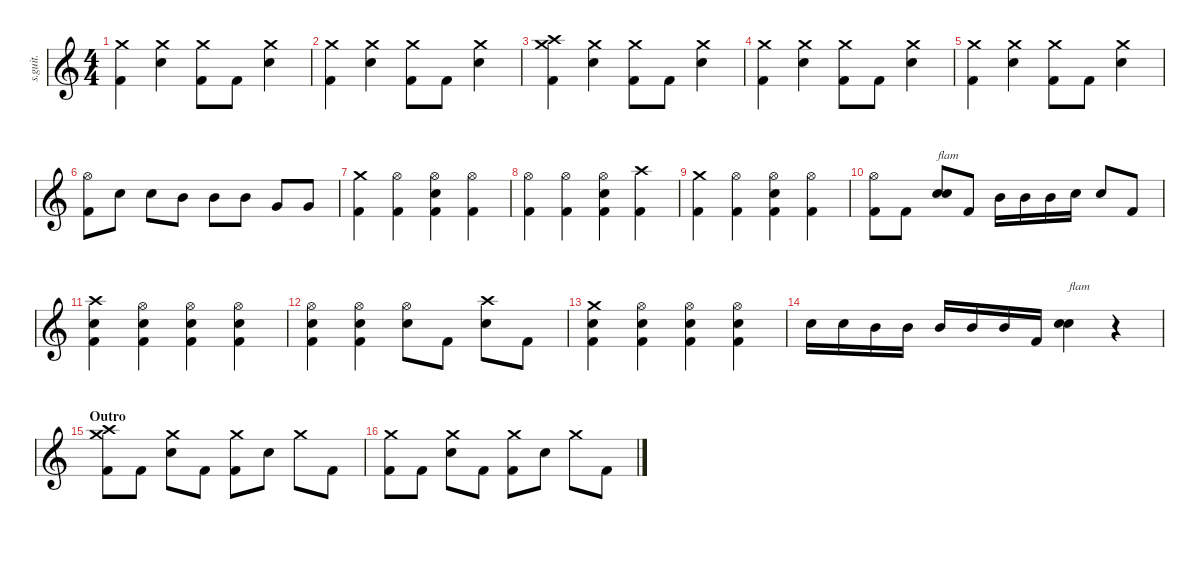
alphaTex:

\defaultSystemsLayout 4
\hideDynamics
\bracketExtendMode nobrackets
\track ("Zac Farro | Drums" "s.guit.") {instrument percussion}
\staff {score}
\articulation defaults
\ts (4 4)
\tempo (173 hide)
\clef g2
\ks c
("Crash medium (hit)" "Kick (hit) 2").4{lyrics (0 "") lyrics (1 "") lyrics (2 "") lyrics (3 "") lyrics (4 "") dy f} ("Crash medium (hit)" "Electric Snare (hit)").4{lyrics (0 "") lyrics (1 "") lyrics (2 "") lyrics (3 "") lyrics (4 "")} ("Crash medium (hit)" "Kick (hit) 2").8{lyrics (0 "") lyrics (1 "") lyrics (2 "") lyrics (3 "") lyrics (4 "")} "Kick (hit) 2".8{lyrics (0 "") lyrics (1 "") lyrics (2 "") lyrics (3 "") lyrics (4 "")} ("Crash medium (hit)" "Electric Snare (hit)").4{lyrics (0 "") lyrics (1 "") lyrics (2 "") lyrics (3 "") lyrics (4 "")} |
("Crash medium (hit)" "Kick (hit) 2").4{lyrics (0 "") lyrics (1 "") lyrics (2 "") lyrics (3 "") lyrics (4 "")} ("Crash medium (hit)" "Electric Snare (hit)").4{lyrics (0 "") lyrics (1 "") lyrics (2 "") lyrics (3 "") lyrics (4 "")} ("Crash medium (hit)" "Kick (hit) 2").8{lyrics (0 "") lyrics (1 "") lyrics (2 "") lyrics (3 "") lyrics (4 "")} "Kick (hit) 2".8{lyrics (0 "") lyrics (1 "") lyrics (2 "") lyrics (3 "") lyrics (4 "")} ("Crash medium (hit)" "Electric Snare (hit)").4{lyrics (0 "") lyrics (1 "") lyrics (2 "") lyrics (3 "") lyrics (4 "")} |
("Crash high (hit)" "Crash medium (hit)" "Kick (hit) 2").4{lyrics (0 "") lyrics (1 "") lyrics (2 "") lyrics (3 "") lyrics (4 "")} ("Crash medium (hit)" "Electric Snare (hit)").4{lyrics (0 "") lyrics (1 "") lyrics (2 "") lyrics (3 "") lyrics (4 "")} ("Crash medium (hit)" "Kick (hit) 2").8{lyrics (0 "") lyrics (1 "") lyrics (2 "") lyrics (3 "") lyrics (4 "")} "Kick (hit) 2".8{lyrics (0 "") lyrics (1 "") lyrics (2 "") lyrics (3 "") lyrics (4 "")} ("Crash medium (hit)" "Electric Snare (hit)").4{lyrics (0 "") lyrics (1 "") lyrics (2 "") lyrics (3 "") lyrics (4 "")} |
("Crash medium (hit)" "Kick (hit) 2").4{lyrics (0 "") lyrics (1 "") lyrics (2 "") lyrics (3 "") lyrics (4 "")} ("Crash medium (hit)" "Electric Snare (hit)").4{lyrics (0 "") lyrics (1 "") lyrics (2 "") lyrics (3 "") lyrics (4 "")} ("Crash medium (hit)" "Kick (hit) 2").8{lyrics (0 "") lyrics (1 "") lyrics (2 "") lyrics (3 "") lyrics (4 "")} "Kick (hit) 2".8{lyrics (0 "") lyrics (1 "") lyrics (2 "") lyrics (3 "") lyrics (4 "")} ("Crash medium (hit)" "Electric Snare (hit)").4{lyrics (0 "") lyrics (1 "") lyrics (2 "") lyrics (3 "") lyrics (4 "")} |
("Crash medium (hit)" "Kick (hit) 2").4{lyrics (0 "") lyrics (1 "") lyrics (2 "") lyrics (3 "") lyrics (4 "")} ("Crash medium (hit)" "Electric Snare (hit)").4{lyrics (0 "") lyrics (1 "") lyrics (2 "") lyrics (3 "") lyrics (4 "")} ("Crash medium (hit)" "Kick (hit) 2").8{lyrics (0 "") lyrics (1 "") lyrics (2 "") lyrics (3 "") lyrics (4 "")} "Kick (hit) 2".8{lyrics (0 "") lyrics (1 "") lyrics (2 "") lyrics (3 "") lyrics (4 "")} ("Crash medium (hit)" "Electric Snare (hit)").4{lyrics (0 "") lyrics (1 "") lyrics (2 "") lyrics (3 "") lyrics (4 "")} |
("Hi-Hat (open)" "Kick (hit) 2").8{lyrics (0 "") lyrics (1 "") lyrics (2 "") lyrics (3 "") lyrics (4 "")} "Electric Snare (hit)".8{lyrics (0 "") lyrics (1 "") lyrics (2 "") lyrics (3 "") lyrics (4 "")} "Electric Snare (hit)".8{lyrics (0 "") lyrics (1 "") lyrics (2 "") lyrics (3 "") lyrics (4 "")} "Mid Tom (hit)".8{lyrics (0 "") lyrics (1 "") lyrics (2 "") lyrics (3 "") lyrics (4 "")} "Mid Tom (hit)".8{lyrics (0 "") lyrics (1 "") lyrics (2 "") lyrics (3 "") lyrics (4 "")} "Mid Tom (hit)".8{lyrics (0 "") lyrics (1 "") lyrics (2 "") lyrics (3 "") lyrics (4 "")} "Very Low Tom (hit)".8{lyrics (0 "") lyrics (1 "") lyrics (2 "") lyrics (3 "") lyrics (4 "")} "Very Low Tom (hit)".8{lyrics (0 "") lyrics (1 "") lyrics (2 "") lyrics (3 "") lyrics (4 "")} |
("Crash medium (hit)" "Kick (hit) 2").4{lyrics (0 "") lyrics (1 "") lyrics (2 "") lyrics (3 "") lyrics (4 "")} ("Hi-Hat (open)" "Kick (hit) 2").4{lyrics (0 "") lyrics (1 "") lyrics (2 "") lyrics (3 "") lyrics (4 "")} ("Hi-Hat (open)" "Electric Snare (hit)" "Kick (hit) 2").4{lyrics (0 "") lyrics (1 "") lyrics (2 "") lyrics (3 "") lyrics (4 "")} ("Hi-Hat (open)" "Kick (hit) 2").4{lyrics (0 "") lyrics (1 "") lyrics (2 "") lyrics (3 "") lyrics (4 "")} |
("Hi-Hat (open)" "Kick (hit) 2").4{lyrics (0 "") lyrics (1 "") lyrics (2 "") lyrics (3 "") lyrics (4 "")} ("Hi-Hat (open)" "Kick (hit) 2").4{lyrics (0 "") lyrics (1 "") lyrics (2 "") lyrics (3 "") lyrics (4 "")} ("Hi-Hat (open)" "Electric Snare (hit)" "Kick (hit) 2").4{lyrics (0 "") lyrics (1 "") lyrics (2 "") lyrics (3 "") lyrics (4 "")} ("Crash high (hit)" "Kick (hit) 2").4{lyrics (0 "") lyrics (1 "") lyrics (2 "") lyrics (3 "") lyrics (4 "")} |
("Crash medium (hit)" "Kick (hit) 2").4{lyrics (0 "") lyrics (1 "") lyrics (2 "") lyrics (3 "") lyrics (4 "")} ("Hi-Hat (open)" "Kick (hit) 2").4{lyrics (0 "") lyrics (1 "") lyrics (2 "") lyrics (3 "") lyrics (4 "")} ("Hi-Hat (open)" "Electric Snare (hit)" "Kick (hit) 2").4{lyrics (0 "") lyrics (1 "") lyrics (2 "") lyrics (3 "") lyrics (4 "")} ("Hi-Hat (open)" "Kick (hit) 2").4{lyrics (0 "") lyrics (1 "") lyrics (2 "") lyrics (3 "") lyrics (4 "")} |
("Hi-Hat (open)" "Kick (hit) 2").8{lyrics (0 "") lyrics (1 "") lyrics (2 "") lyrics (3 "") lyrics (4 "")} "Kick (hit) 2".8{lyrics (0 "") lyrics (1 "") lyrics (2 "") lyrics (3 "") lyrics (4 "")} ("Electric Snare (hit)" "Electric Snare (hit)").8{bd 30 txt "flam" lyrics (0 "") lyrics (1 "") lyrics (2 "") lyrics (3 "") lyrics (4 "")} "Kick (hit) 2".8{lyrics (0 "") lyrics (1 "") lyrics (2 "") lyrics (3 "") lyrics (4 "")} "Mid Tom (hit)".16{lyrics (0 "") lyrics (1 "") lyrics (2 "") lyrics (3 "") lyrics (4 "")} "Mid Tom (hit)".16{lyrics (0 "") lyrics (1 "") lyrics (2 "") lyrics (3 "") lyrics (4 "")} "Mid Tom (hit)".16{lyrics (0 "") lyrics (1 "") lyrics (2 "") lyrics (3 "") lyrics (4 "")} "Electric Snare (hit)".16{lyrics (0 "") lyrics (1 "") lyrics (2 "") lyrics (3 "") lyrics (4 "")} "Electric Snare (hit)".8{lyrics (0 "") lyrics (1 "") lyrics (2 "") lyrics (3 "") lyrics (4 "")} "Kick (hit) 2".8{lyrics (0 "") lyrics (1 "") lyrics (2 "") lyrics (3 "") lyrics (4 "")} |
("Crash high (hit)" "Electric Snare (hit)" "Kick (hit) 2").4{lyrics (0 "") lyrics (1 "") lyrics (2 "") lyrics (3 "") lyrics (4 "")} ("Hi-Hat (open)" "Electric Snare (hit)" "Kick (hit) 2").4{lyrics (0 "") lyrics (1 "") lyrics (2 "") lyrics (3 "") lyrics (4 "")} ("Hi-Hat (open)" "Electric Snare (hit)" "Kick (hit) 2").4{lyrics (0 "") lyrics (1 "") lyrics (2 "") lyrics (3 "") lyrics (4 "")} ("Hi-Hat (open)" "Electric Snare (hit)" "Kick (hit) 2").4{lyrics (0 "") lyrics (1 "") lyrics (2 "") lyrics (3 "") lyrics (4 "")} |
("Hi-Hat (open)" "Electric Snare (hit)" "Kick (hit) 2").4{lyrics (0 "") lyrics (1 "") lyrics (2 "") lyrics (3 "") lyrics (4 "")} ("Hi-Hat (open)" "Electric Snare (hit)" "Kick (hit) 2").4{lyrics (0 "") lyrics (1 "") lyrics (2 "") lyrics (3 "") lyrics (4 "")} ("Hi-Hat (open)" "Electric Snare (hit)").8{lyrics (0 "") lyrics (1 "") lyrics (2 "") lyrics (3 "") lyrics (4 "")} "Kick (hit) 2".8{lyrics (0 "") lyrics (1 "") lyrics (2 "") lyrics (3 "") lyrics (4 "")} ("Crash high (hit)" "Electric Snare (hit)").8{lyrics (0 "") lyrics (1 "") lyrics (2 "") lyrics (3 "") lyrics (4 "")} "Kick (hit) 2".8{lyrics (0 "") lyrics (1 "") lyrics (2 "") lyrics (3 "") lyrics (4 "")} |
("Crash medium (hit)" "Electric Snare (hit)" "Kick (hit) 2").4{lyrics (0 "") lyrics (1 "") lyrics (2 "") lyrics (3 "") lyrics (4 "")} ("Hi-Hat (open)" "Electric Snare (hit)" "Kick (hit) 2").4{lyrics (0 "") lyrics (1 "") lyrics (2 "") lyrics (3 "") lyrics (4 "")} ("Hi-Hat (open)" "Electric Snare (hit)" "Kick (hit) 2").4{lyrics (0 "") lyrics (1 "") lyrics (2 "") lyrics (3 "") lyrics (4 "")} ("Hi-Hat (open)" "Electric Snare (hit)" "Kick (hit) 2").4{lyrics (0 "") lyrics (1 "") lyrics (2 "") lyrics (3 "") lyrics (4 "")} |
"Electric Snare (hit)".16{lyrics (0 "") lyrics (1 "") lyrics (2 "") lyrics (3 "") lyrics (4 "")} "Electric Snare (hit)".16{lyrics (0 "") lyrics (1 "") lyrics (2 "") lyrics (3 "") lyrics (4 "")} "Mid Tom (hit)".16{lyrics (0 "") lyrics (1 "") lyrics (2 "") lyrics (3 "") lyrics (4 "")} "Mid Tom (hit)".16{lyrics (0 "") lyrics (1 "") lyrics (2 "") lyrics (3 "") lyrics (4 "")} "Mid Tom (hit)".16{lyrics (0 "") lyrics (1 "") lyrics (2 "") lyrics (3 "") lyrics (4 "")} "Mid Tom (hit)".16{lyrics (0 "") lyrics (1 "") lyrics (2 "") lyrics (3 "") lyrics (4 "")} "Mid Tom (hit)".16{lyrics (0 "") lyrics (1 "") lyrics (2 "") lyrics (3 "") lyrics (4 "")} "Kick (hit) 2".16{lyrics (0 "") lyrics (1 "") lyrics (2 "") lyrics (3 "") lyrics (4 "")} ("Electric Snare (hit)" "Electric Snare (hit)").4{bd 30 txt "flam" lyrics (0 "") lyrics (1 "") lyrics (2 "") lyrics (3 "") lyrics (4 "")} r.4 |
\section ("" "Outro")
("Crash high (hit)" "Crash medium (hit)" "Kick (hit) 2").8{lyrics (0 "") lyrics (1 "") lyrics (2 "") lyrics (3 "") lyrics (4 "")} "Kick (hit) 2".8{lyrics (0 "") lyrics (1 "") lyrics (2 "") lyrics (3 "") lyrics (4 "")} ("Crash medium (hit)" "Electric Snare (hit)").8{lyrics (0 "") lyrics (1 "") lyrics (2 "") lyrics (3 "") lyrics (4 "")} "Kick (hit) 2".8{lyrics (0 "") lyrics (1 "") lyrics (2 "") lyrics (3 "") lyrics (4 "")} ("Crash medium (hit)" "Kick (hit) 2").8{lyrics (0 "") lyrics (1 "") lyrics (2 "") lyrics (3 "") lyrics (4 "")} "Electric Snare (hit)".8{lyrics (0 "") lyrics (1 "") lyrics (2 "") lyrics (3 "") lyrics (4 "")} "Crash medium (hit)".8{lyrics (0 "") lyrics (1 "") lyrics (2 "") lyrics (3 "") lyrics (4 "")} "Kick (hit) 2".8{lyrics (0 "") lyrics (1 "") lyrics (2 "") lyrics (3 "") lyrics (4 "")} |
("Crash medium (hit)" "Kick (hit) 2").8{lyrics (0 "") lyrics (1 "") lyrics (2 "") lyrics (3 "") lyrics (4 "")} "Kick (hit) 2".8{lyrics (0 "") lyrics (1 "") lyrics (2 "") lyrics (3 "") lyrics (4 "")} ("Crash medium (hit)" "Electric Snare (hit)").8{lyrics (0 "") lyrics (1 "") lyrics (2 "") lyrics (3 "") lyrics (4 "")} "Kick (hit) 2".8{lyrics (0 "") lyrics (1 "") lyrics (2 "") lyrics (3 "") lyrics (4 "")} ("Crash medium (hit)" "Kick (hit) 2").8{lyrics (0 "") lyrics (1 "") lyrics (2 "") lyrics (3 "") lyrics (4 "")} "Electric Snare (hit)".8{lyrics (0 "") lyrics (1 "") lyrics (2 "") lyrics (3 "") lyrics (4 "")} "Crash medium (hit)".8{lyrics (0 "") lyrics (1 "") lyrics (2 "") lyrics (3 "") lyrics (4 "")} "Kick (hit) 2".8{lyrics (0 "") lyrics (1 "") lyrics (2 "") lyrics (3 "") lyrics (4 "")}
